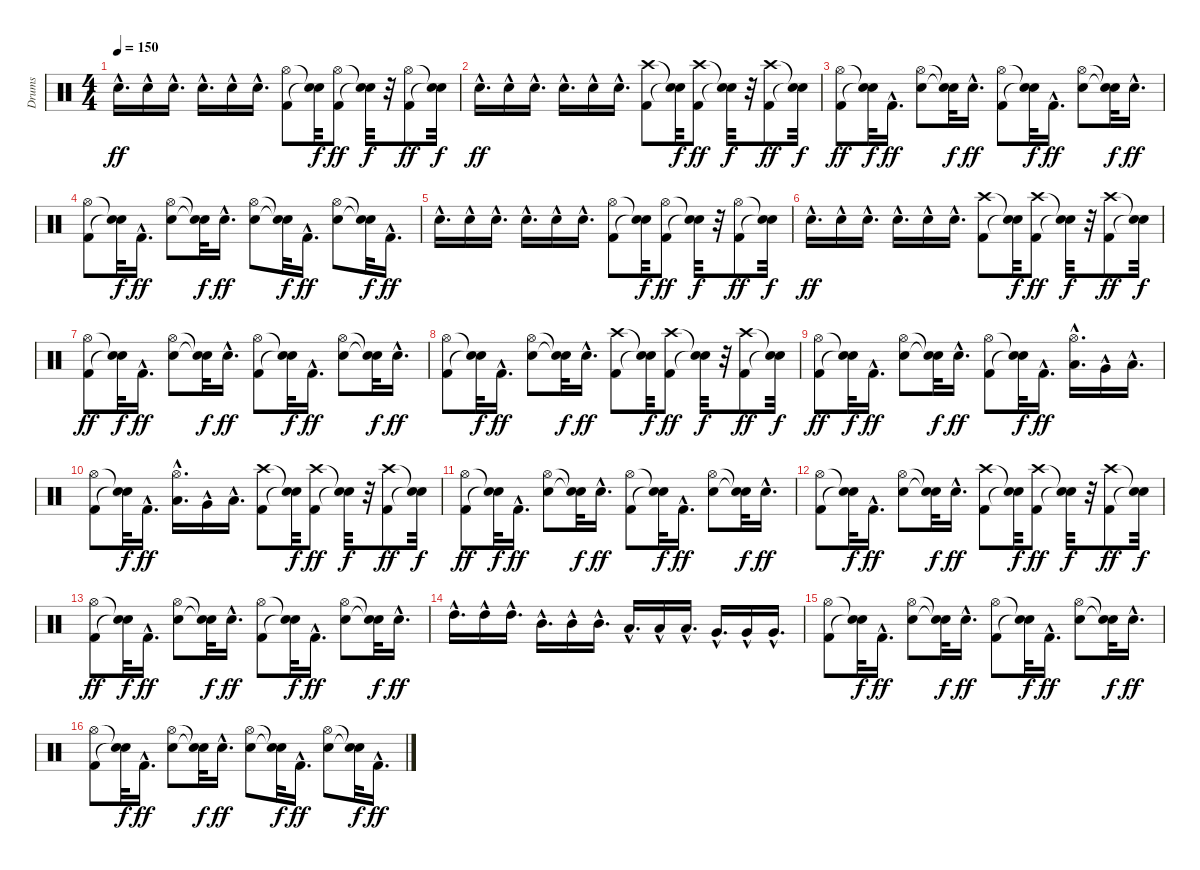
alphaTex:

\track ("Drums" "Drums") {instrument percussion}
\staff {score}
\articulation defaults
\ts (4 4)
\tempo 150
\clef neutral
\ks c "Snare (hit) 2"{hac}.16{d dy ff} "Snare (hit) 2"{hac}.16 "Snare (hit) 2"{hac}.16{d} "Snare (hit) 2"{hac}.16{d} "Snare (hit) 2"{hac}.16 "Snare (hit) 2"{hac}.16{d}
("Kick (hit) 2" "Hi-Hat (open)").8 ("Snare (hit)"{t} "Snare (hit)"{t}).32{dy f} ("Kick (hit) 2" "Hi-Hat (open)").8{dy ff} ("Snare (hit)"{t} "Snare (hit)"{t}).32{dy f} r.32 ("Kick (hit) 2" "Hi-Hat (open)").8{dy ff} ("Snare (hit)"{t} "Snare (hit)"{t}).32{dy f} |
"Snare (hit) 2"{hac}.16{d dy ff} "Snare (hit) 2"{hac}.16 "Snare (hit) 2"{hac}.16{d} "Snare (hit) 2"{hac}.16{d} "Snare (hit) 2"{hac}.16 "Snare (hit) 2"{hac}.16{d} ("Kick (hit) 2" "Crash high (hit)").8 ("Snare (hit)"{t} "Snare (hit)"{t}).32{dy f} ("Kick (hit) 2" "Crash high (hit)").8{dy ff} ("Snare (hit)"{t} "Snare (hit)"{t}).32{dy f} r.32 ("Kick (hit) 2" "Crash high (hit)").8{dy ff} ("Snare (hit)"{t} "Snare (hit)"{t}).32{dy f} |
("Kick (hit) 2" "Hi-Hat (open)").8{dy ff} ("Snare (hit)"{t} "Snare (hit)"{t}).32{dy f} "Kick (hit) 2"{hac}.16{d dy ff} ("Snare (hit) 2" "Hi-Hat (open)").8 ("Snare (hit)"{t} "Snare (hit)"{t}).32{dy f} "Snare (hit) 2"{hac}.16{d dy ff} ("Kick (hit) 2" "Hi-Hat (open)").8 ("Snare (hit)"{t} "Snare (hit)"{t}).32{dy f} "Kick (hit) 2"{hac}.16{d dy ff} ("Snare (hit) 2" "Hi-Hat (open)").8 ("Snare (hit)"{t} "Snare (hit)"{t}).32{dy f} "Snare (hit) 2"{hac}.16{d dy ff} |
("Kick (hit) 2" "Hi-Hat (open)").8 ("Snare (hit)"{t} "Snare (hit)"{t}).32{dy f} "Kick (hit) 2"{hac}.16{d dy ff} ("Snare (hit) 2" "Hi-Hat (open)").8 ("Snare (hit)"{t} "Snare (hit)"{t}).32{dy f} "Snare (hit) 2"{hac}.16{d dy ff} ("Snare (hit) 2" "Hi-Hat (open)").8 ("Snare (hit)"{t} "Snare (hit)"{t}).32{dy f} "Kick (hit) 2"{hac}.16{d dy ff} ("Snare (hit) 2" "Hi-Hat (open)").8 ("Snare (hit)"{t} "Snare (hit)"{t}).32{dy f} "Kick (hit) 2"{hac}.16{d dy ff} |
"Snare (hit) 2"{hac}.16{d} "Snare (hit) 2"{hac}.16 "Snare (hit) 2"{hac}.16{d} "Snare (hit) 2"{hac}.16{d} "Snare (hit) 2"{hac}.16 "Snare (hit) 2"{hac}.16{d} ("Kick (hit) 2" "Hi-Hat (open)").8 ("Snare (hit)"{t} "Snare (hit)"{t}).32{dy f} ("Kick (hit) 2" "Hi-Hat (open)").8{dy ff} ("Snare (hit)"{t} "Snare (hit)"{t}).32{dy f} r.32 ("Kick (hit) 2" "Hi-Hat (open)").8{dy ff} ("Snare (hit)"{t} "Snare (hit)"{t}).32{dy f} |
"Snare (hit) 2"{hac}.16{d dy ff} "Snare (hit) 2"{hac}.16 "Snare (hit) 2"{hac}.16{d} "Snare (hit) 2"{hac}.16{d} "Snare (hit) 2"{hac}.16 "Snare (hit) 2"{hac}.16{d} ("Kick (hit) 2" "Crash high (hit)").8 ("Snare (hit)"{t} "Snare (hit)"{t}).32{dy f} ("Kick (hit) 2" "Crash high (hit)").8{dy ff} ("Snare (hit)"{t} "Snare (hit)"{t}).32{dy f} r.32 ("Kick (hit) 2" "Crash high (hit)").8{dy ff} ("Snare (hit)"{t} "Snare (hit)"{t}).32{dy f} |
("Kick (hit) 2" "Hi-Hat (open)").8{dy ff} ("Snare (hit)"{t} "Snare (hit)"{t}).32{dy f} "Kick (hit) 2"{hac}.16{d dy ff} ("Snare (hit) 2" "Hi-Hat (open)").8 ("Snare (hit)"{t} "Snare (hit)"{t}).32{dy f} "Snare (hit) 2"{hac}.16{d dy ff} ("Kick (hit) 2" "Hi-Hat (open)").8 ("Snare (hit)"{t} "Snare (hit)"{t}).32{dy f} "Kick (hit) 2"{hac}.16{d dy ff} ("Snare (hit) 2" "Hi-Hat (open)").8 ("Snare (hit)"{t} "Snare (hit)"{t}).32{dy f} "Snare (hit) 2"{hac}.16{d dy ff} |
("Kick (hit) 2" "Hi-Hat (open)").8 ("Snare (hit)"{t} "Snare (hit)"{t}).32{dy f} "Kick (hit) 2"{hac}.16{d dy ff} ("Snare (hit) 2" "Hi-Hat (open)").8 ("Snare (hit)"{t} "Snare (hit)"{t}).32{dy f} "Snare (hit) 2"{hac}.16{d dy ff} ("Kick (hit) 2" "Crash high (hit)").8 ("Snare (hit)"{t} "Snare (hit)"{t}).32{dy f} ("Kick (hit) 2" "Crash high (hit)").8{dy ff} ("Snare (hit)"{t} "Snare (hit)"{t}).32{dy f} r.32 ("Kick (hit) 2" "Crash high (hit)").8{dy ff} ("Snare (hit)"{t} "Snare (hit)"{t}).32{dy f} |
("Kick (hit) 2" "Hi-Hat (open)").8{dy ff} ("Snare (hit)"{t} "Snare (hit)"{t}).32{dy f} "Kick (hit) 2"{hac}.16{d dy ff} ("Snare (hit) 2" "Hi-Hat (open)").8 ("Snare (hit)"{t} "Snare (hit)"{t}).32{dy f} "Snare (hit) 2"{hac}.16{d dy ff} ("Kick (hit) 2" "Hi-Hat (open)").8 ("Snare (hit)"{t} "Snare (hit)"{t}).32{dy f} "Kick (hit) 2"{hac}.16{d dy ff} ("Low Tom (hit)"{hac} "Hi-Hat (open)"{hac}).16{d} "Very Low Tom (hit)"{hac}.16 "Low Floor Tom (hit)"{hac}.16{d} |
("Kick (hit) 2" "Hi-Hat (open)").8 ("Snare (hit)"{t} "Snare (hit)"{t}).32{dy f} "Kick (hit) 2"{hac}.16{d dy ff} ("Low Tom (hit)"{hac} "Hi-Hat (open)"{hac}).16{d} "Very Low Tom (hit)"{hac}.16 "Low Floor Tom (hit)"{hac}.16{d} ("Kick (hit) 2" "Crash high (hit)").8 ("Snare (hit)"{t} "Snare (hit)"{t}).32{dy f} ("Kick (hit) 2" "Crash high (hit)").8{dy ff} ("Snare (hit)"{t} "Snare (hit)"{t}).32{dy f} r.32 ("Kick (hit) 2" "Crash high (hit)").8{dy ff} ("Snare (hit)"{t} "Snare (hit)"{t}).32{dy f} |
("Kick (hit) 2" "Hi-Hat (open)").8{dy ff} ("Snare (hit)"{t} "Snare (hit)"{t}).32{dy f} "Kick (hit) 2"{hac}.16{d dy ff} ("Snare (hit) 2" "Hi-Hat (open)").8 ("Snare (hit)"{t} "Snare (hit)"{t}).32{dy f} "Snare (hit) 2"{hac}.16{d dy ff} ("Kick (hit) 2" "Hi-Hat (open)").8 ("Snare (hit)"{t} "Snare (hit)"{t}).32{dy f} "Kick (hit) 2"{hac}.16{d dy ff} ("Snare (hit) 2" "Hi-Hat (open)").8 ("Snare (hit)"{t} "Snare (hit)"{t}).32{dy f} "Snare (hit) 2"{hac}.16{d dy ff} |
("Kick (hit) 2" "Hi-Hat (open)").8 ("Snare (hit)"{t} "Snare (hit)"{t}).32{dy f} "Kick (hit) 2"{hac}.16{d dy ff} ("Snare (hit) 2" "Hi-Hat (open)").8 ("Snare (hit)"{t} "Snare (hit)"{t}).32{dy f} "Snare (hit) 2"{hac}.16{d dy ff} ("Kick (hit) 2" "Crash high (hit)").8 ("Snare (hit)"{t} "Snare (hit)"{t}).32{dy f} ("Kick (hit) 2" "Crash high (hit)").8{dy ff} ("Snare (hit)"{t} "Snare (hit)"{t}).32{dy f} r.32 ("Kick (hit) 2" "Crash high (hit)").8{dy ff} ("Snare (hit)"{t} "Snare (hit)"{t}).32{dy f} |
("Kick (hit) 2" "Hi-Hat (open)").8{dy ff} ("Snare (hit)"{t} "Snare (hit)"{t}).32{dy f} "Kick (hit) 2"{hac}.16{d dy ff} ("Snare (hit) 2" "Hi-Hat (open)").8 ("Snare (hit)"{t} "Snare (hit)"{t}).32{dy f} "Snare (hit) 2"{hac}.16{d dy ff} ("Kick (hit) 2" "Hi-Hat (open)").8 ("Snare (hit)"{t} "Snare (hit)"{t}).32{dy f} "Kick (hit) 2"{hac}.16{d dy ff} ("Snare (hit) 2" "Hi-Hat (open)").8 ("Snare (hit)"{t} "Snare (hit)"{t}).32{dy f} "Snare (hit) 2"{hac}.16{d dy ff} |
"High Tom (hit)"{hac}.16{d} "High Tom (hit)"{hac}.16 "High Tom (hit)"{hac}.16{d} "Mid Tom (hit)"{hac}.16{d} "Mid Tom (hit)"{hac}.16 "Mid Tom (hit)"{hac}.16{d} "Low Tom (hit)"{hac}.16{d} "Low Tom (hit)"{hac}.16 "Low Tom (hit)"{hac}.16{d} "Very Low Tom (hit)"{hac}.16{d} "Very Low Tom (hit)"{hac}.16 "Very Low Tom (hit)"{hac}.16{d} |
("Kick (hit) 2" "Hi-Hat (open)").8 ("Snare (hit)"{t} "Snare (hit)"{t}).32{dy f} "Kick (hit) 2"{hac}.16{d dy ff} ("Snare (hit) 2" "Hi-Hat (open)").8 ("Snare (hit)"{t} "Snare (hit)"{t}).32{dy f} "Snare (hit) 2"{hac}.16{d dy ff} ("Kick (hit) 2" "Hi-Hat (open)").8 ("Snare (hit)"{t} "Snare (hit)"{t}).32{dy f} "Kick (hit) 2"{hac}.16{d dy ff} ("Snare (hit) 2" "Hi-Hat (open)").8 ("Snare (hit)"{t} "Snare (hit)"{t}).32{dy f} "Snare (hit) 2"{hac}.16{d dy ff} |
("Kick (hit) 2" "Hi-Hat (open)").8 ("Snare (hit)"{t} "Snare (hit)"{t}).32{dy f} "Kick (hit) 2"{hac}.16{d dy ff} ("Snare (hit) 2" "Hi-Hat (open)").8 ("Snare (hit)"{t} "Snare (hit)"{t}).32{dy f} "Snare (hit) 2"{hac}.16{d dy ff} ("Snare (hit) 2" "Hi-Hat (open)").8 ("Snare (hit)"{t} "Snare (hit)"{t}).32{dy f} "Kick (hit) 2"{hac}.16{d dy ff} ("Snare (hit) 2" "Hi-Hat (open)").8 ("Snare (hit)"{t} "Snare (hit)"{t}).32{dy f} "Kick (hit) 2"{hac}.16{d dy ff}
